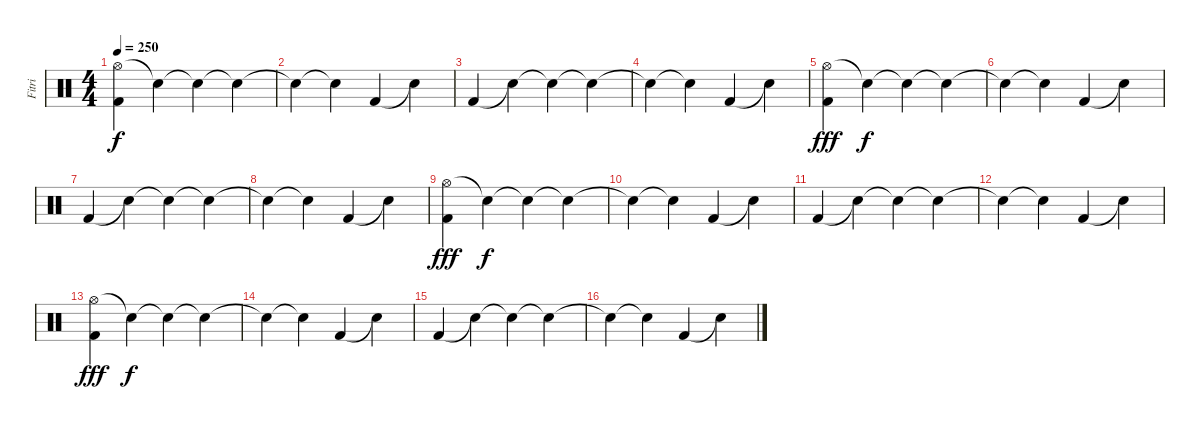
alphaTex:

\track ("Fitri" "Fitri") {instrument percussion}
\staff {score}
\articulation defaults
\ts (4 4)
\tempo 250
\clef neutral
\ks c
("Hi-Hat (open)" "Kick (hit) 2").4{dy f} "Snare (hit)"{t}.4 "Snare (hit)"{t}.4 "Snare (hit)"{t}.4 |
"Snare (hit)"{t}.4 "Snare (hit)"{t}.4 "Kick (hit) 2".4 "Snare (hit)"{t}.4 |
"Kick (hit) 2".4 "Snare (hit)"{t}.4 "Snare (hit)"{t}.4 "Snare (hit)"{t}.4 |
"Snare (hit)"{t}.4 "Snare (hit)"{t}.4 "Kick (hit) 2".4 "Snare (hit)"{t}.4 |
("Hi-Hat (open)" "Kick (hit) 2").4{dy fff} "Snare (hit)"{t}.4{dy f} "Snare (hit)"{t}.4 "Snare (hit)"{t}.4 |
"Snare (hit)"{t}.4 "Snare (hit)"{t}.4 "Kick (hit) 2".4 "Snare (hit)"{t}.4 |
"Kick (hit) 2".4 "Snare (hit)"{t}.4 "Snare (hit)"{t}.4 "Snare (hit)"{t}.4 |
"Snare (hit)"{t}.4 "Snare (hit)"{t}.4 "Kick (hit) 2".4 "Snare (hit)"{t}.4 |
("Hi-Hat (open)" "Kick (hit) 2").4{dy fff} "Snare (hit)"{t}.4{dy f} "Snare (hit)"{t}.4 "Snare (hit)"{t}.4 |
"Snare (hit)"{t}.4 "Snare (hit)"{t}.4 "Kick (hit) 2".4 "Snare (hit)"{t}.4 |
"Kick (hit) 2".4 "Snare (hit)"{t}.4 "Snare (hit)"{t}.4 "Snare (hit)"{t}.4 |
"Snare (hit)"{t}.4 "Snare (hit)"{t}.4 "Kick (hit) 2".4 "Snare (hit)"{t}.4 |
("Hi-Hat (open)" "Kick (hit) 2").4{dy fff} "Snare (hit)"{t}.4{dy f} "Snare (hit)"{t}.4 "Snare (hit)"{t}.4 |
"Snare (hit)"{t}.4 "Snare (hit)"{t}.4 "Kick (hit) 2".4 "Snare (hit)"{t}.4 |
"Kick (hit) 2".4 "Snare (hit)"{t}.4 "Snare (hit)"{t}.4 "Snare (hit)"{t}.4 |
"Snare (hit)"{t}.4 "Snare (hit)"{t}.4 "Kick (hit) 2".4 "Snare (hit)"{t}.4
